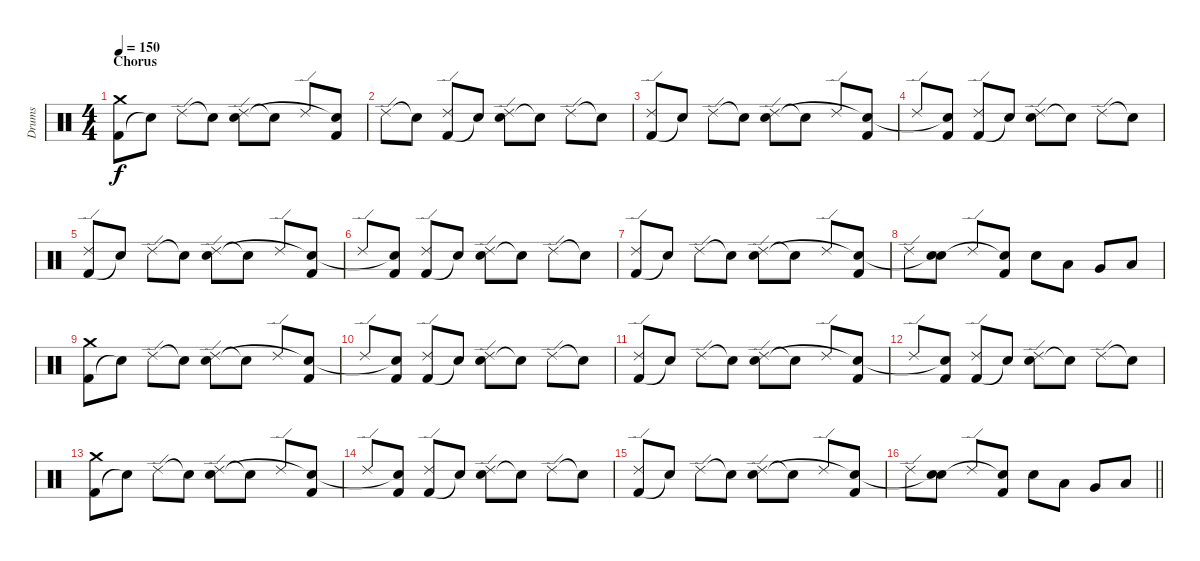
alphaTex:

\track ("Drums" "Drums") {instrument percussion}
\staff {score}
\articulation defaults
\ts (4 4)
\section ("" "Chorus")
\tempo 150
\clef neutral
\ks c
("Kick (hit) 2" "Crash medium (hit)").8{dy f} "Snare (hit)"{t}.8 "Ride (edge) 2".8 "Snare (hit)"{t}.8 ("Electric Snare (hit)" "Ride (edge) 2").8 "Snare (hit)"{t}.8 "Ride (edge) 2".8 ("Kick (hit) 2" "Snare (hit)"{t}).8 |
"Ride (edge) 2".8 "Snare (hit)"{t}.8 ("Kick (hit) 2" "Ride (edge) 2").8 "Snare (hit)"{t}.8 ("Electric Snare (hit)" "Ride (edge) 2").8 "Snare (hit)"{t}.8 "Ride (edge) 2".8 "Snare (hit)"{t}.8 |
("Kick (hit) 2" "Ride (edge) 2").8 "Snare (hit)"{t}.8 "Ride (edge) 2".8 "Snare (hit)"{t}.8 ("Electric Snare (hit)" "Ride (edge) 2").8 "Snare (hit)"{t}.8 "Ride (edge) 2".8 ("Kick (hit) 2" "Snare (hit)"{t}).8 |
"Ride (edge) 2".8 ("Kick (hit) 2" "Snare (hit)"{t}).8 ("Kick (hit) 2" "Ride (edge) 2").8 "Snare (hit)"{t}.8 ("Electric Snare (hit)" "Ride (edge) 2").8 "Snare (hit)"{t}.8 "Ride (edge) 2".8 "Snare (hit)"{t}.8 |
("Kick (hit) 2" "Ride (edge) 2").8 "Snare (hit)"{t}.8 "Ride (edge) 2".8 "Snare (hit)"{t}.8 ("Electric Snare (hit)" "Ride (edge) 2").8 "Snare (hit)"{t}.8 "Ride (edge) 2".8 ("Kick (hit) 2" "Snare (hit)"{t}).8 |
"Ride (edge) 2".8 ("Kick (hit) 2" "Snare (hit)"{t}).8 ("Kick (hit) 2" "Ride (edge) 2").8 "Snare (hit)"{t}.8 ("Electric Snare (hit)" "Ride (edge) 2").8 "Snare (hit)"{t}.8 "Ride (edge) 2".8 "Snare (hit)"{t}.8 |
("Kick (hit) 2" "Ride (edge) 2").8 "Snare (hit)"{t}.8 "Ride (edge) 2".8 "Snare (hit)"{t}.8 ("Electric Snare (hit)" "Ride (edge) 2").8 "Snare (hit)"{t}.8 "Ride (edge) 2".8 ("Kick (hit) 2" "Snare (hit)"{t}).8 |
"Ride (edge) 2".8 ("Electric Snare (hit)" "Snare (hit)"{t}).8 "Ride (edge) 2".8 ("Kick (hit) 2" "Snare (hit)"{t}).8 "Electric Snare (hit)".8 "Low Tom (hit)".8 "Very Low Tom (hit)".8 "Low Floor Tom (hit)".8 |
("Kick (hit) 2" "Crash medium (hit)").8 "Snare (hit)"{t}.8 "Ride (edge) 2".8 "Snare (hit)"{t}.8 ("Electric Snare (hit)" "Ride (edge) 2").8 "Snare (hit)"{t}.8 "Ride (edge) 2".8 ("Kick (hit) 2" "Snare (hit)"{t}).8 |
"Ride (edge) 2".8 ("Kick (hit) 2" "Snare (hit)"{t}).8 ("Kick (hit) 2" "Ride (edge) 2").8 "Snare (hit)"{t}.8 ("Electric Snare (hit)" "Ride (edge) 2").8 "Snare (hit)"{t}.8 "Ride (edge) 2".8 "Snare (hit)"{t}.8 |
("Kick (hit) 2" "Ride (edge) 2").8 "Snare (hit)"{t}.8 "Ride (edge) 2".8 "Snare (hit)"{t}.8 ("Electric Snare (hit)" "Ride (edge) 2").8 "Snare (hit)"{t}.8 "Ride (edge) 2".8 ("Kick (hit) 2" "Snare (hit)"{t}).8 |
"Ride (edge) 2".8 ("Kick (hit) 2" "Snare (hit)"{t}).8 ("Kick (hit) 2" "Ride (edge) 2").8 "Snare (hit)"{t}.8 ("Electric Snare (hit)" "Ride (edge) 2").8 "Snare (hit)"{t}.8 "Ride (edge) 2".8 "Snare (hit)"{t}.8 |
("Kick (hit) 2" "Crash medium (hit)").8 "Snare (hit)"{t}.8 "Ride (edge) 2".8 "Snare (hit)"{t}.8 ("Electric Snare (hit)" "Ride (edge) 2").8 "Snare (hit)"{t}.8 "Ride (edge) 2".8 ("Kick (hit) 2" "Snare (hit)"{t}).8 |
"Ride (edge) 2".8 ("Kick (hit) 2" "Snare (hit)"{t}).8 ("Kick (hit) 2" "Ride (edge) 2").8 "Snare (hit)"{t}.8 ("Electric Snare (hit)" "Ride (edge) 2").8 "Snare (hit)"{t}.8 "Ride (edge) 2".8 "Snare (hit)"{t}.8 |
("Kick (hit) 2" "Ride (edge) 2").8 "Snare (hit)"{t}.8 "Ride (edge) 2".8 "Snare (hit)"{t}.8 ("Electric Snare (hit)" "Ride (edge) 2").8 "Snare (hit)"{t}.8 "Ride (edge) 2".8 ("Kick (hit) 2" "Snare (hit)"{t}).8 |
\barLineRight lightlight "Ride (edge) 2".8
("Electric Snare (hit)" "Snare (hit)"{t}).8 "Ride (edge) 2".8 ("Kick (hit) 2" "Snare (hit)"{t}).8 "Electric Snare (hit)".8 "Low Tom (hit)".8 "Very Low Tom (hit)".8 "Low Floor Tom (hit)".8
